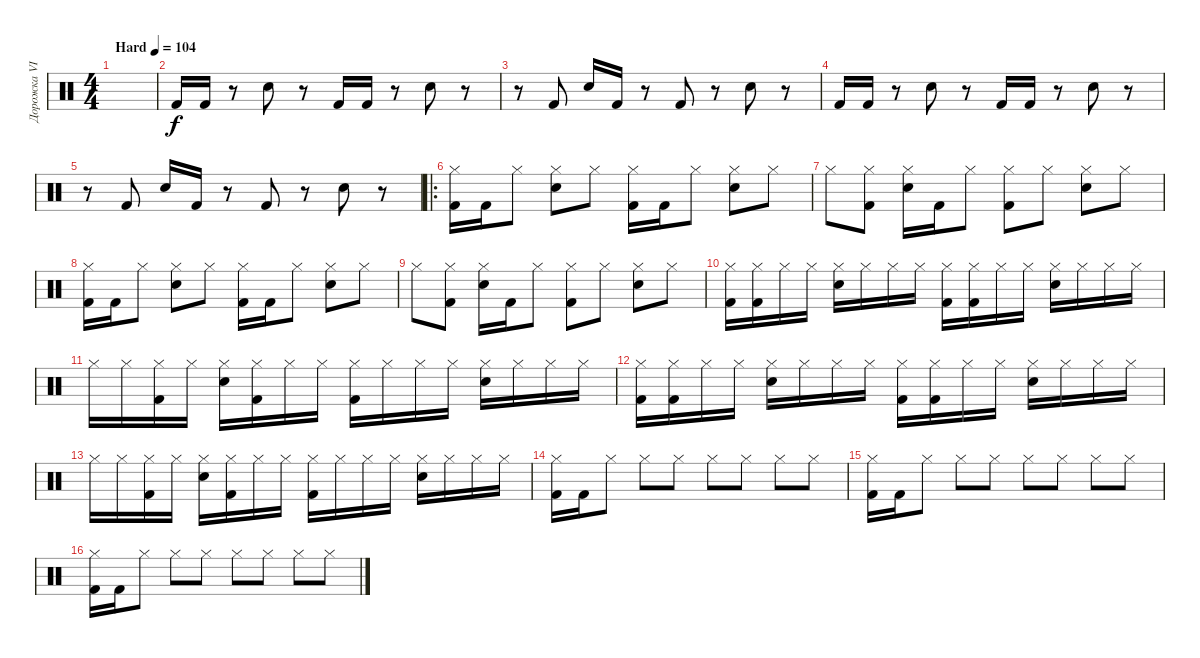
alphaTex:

\track ("Дорожка VII" "Дорожка VI") {instrument percussion}
\staff {score}
\articulation defaults
\ts (4 4)
\tempo (104 "Hard")
\clef neutral
\ks c
|
"Kick (hit) 2".16 "Kick (hit) 2".16 r.8 "Electric Snare (hit)".8 r.8 "Kick (hit) 2".16 "Kick (hit) 2".16 r.8 "Electric Snare (hit)".8 r.8 |
r.8 "Kick (hit) 2".8 "Electric Snare (hit)".16 "Kick (hit) 2".16 r.8 "Kick (hit) 2".8 r.8 "Electric Snare (hit)".8 r.8 |
"Kick (hit) 2".16 "Kick (hit) 2".16 r.8 "Electric Snare (hit)".8 r.8 "Kick (hit) 2".16 "Kick (hit) 2".16 r.8 "Electric Snare (hit)".8 r.8 |
r.8 "Kick (hit) 2".8 "Electric Snare (hit)".16 "Kick (hit) 2".16 r.8 "Kick (hit) 2".8 r.8 "Electric Snare (hit)".8 r.8 |
\ro
("Kick (hit) 2" "Hi-Hat (closed)").16 "Kick (hit) 2".16 "Hi-Hat (closed)".8 ("Electric Snare (hit)" "Hi-Hat (closed)").8 "Hi-Hat (closed)".8 ("Kick (hit) 2" "Hi-Hat (closed)").16 "Kick (hit) 2".16 "Hi-Hat (closed)".8 ("Electric Snare (hit)" "Hi-Hat (closed)").8 "Hi-Hat (closed)".8 |
"Hi-Hat (closed)".8 ("Kick (hit) 2" "Hi-Hat (closed)").8 ("Electric Snare (hit)" "Hi-Hat (closed)").16 "Kick (hit) 2".16 "Hi-Hat (closed)".8 ("Kick (hit) 2" "Hi-Hat (closed)").8 "Hi-Hat (closed)".8 ("Electric Snare (hit)" "Hi-Hat (closed)").8 "Hi-Hat (closed)".8 |
("Kick (hit) 2" "Hi-Hat (closed)").16 "Kick (hit) 2".16 "Hi-Hat (closed)".8 ("Electric Snare (hit)" "Hi-Hat (closed)").8 "Hi-Hat (closed)".8 ("Kick (hit) 2" "Hi-Hat (closed)").16 "Kick (hit) 2".16 "Hi-Hat (closed)".8 ("Electric Snare (hit)" "Hi-Hat (closed)").8 "Hi-Hat (closed)".8 |
"Hi-Hat (closed)".8 ("Kick (hit) 2" "Hi-Hat (closed)").8 ("Electric Snare (hit)" "Hi-Hat (closed)").16 "Kick (hit) 2".16 "Hi-Hat (closed)".8 ("Kick (hit) 2" "Hi-Hat (closed)").8 "Hi-Hat (closed)".8 ("Electric Snare (hit)" "Hi-Hat (closed)").8 "Hi-Hat (closed)".8 |
("Kick (hit) 2" "Hi-Hat (closed)").16 ("Kick (hit) 2" "Hi-Hat (closed)").16 "Hi-Hat (closed)".16 "Hi-Hat (closed)".16 ("Electric Snare (hit)" "Hi-Hat (closed)").16 "Hi-Hat (closed)".16 "Hi-Hat (closed)".16 "Hi-Hat (closed)".16 ("Kick (hit) 2" "Hi-Hat (closed)").16 ("Kick (hit) 2" "Hi-Hat (closed)").16 "Hi-Hat (closed)".16 "Hi-Hat (closed)".16 ("Electric Snare (hit)" "Hi-Hat (closed)").16 "Hi-Hat (closed)".16 "Hi-Hat (closed)".16 "Hi-Hat (closed)".16 |
"Hi-Hat (closed)".16 "Hi-Hat (closed)".16 ("Kick (hit) 2" "Hi-Hat (closed)").16 "Hi-Hat (closed)".16 ("Electric Snare (hit)" "Hi-Hat (closed)").16 ("Kick (hit) 2" "Hi-Hat (closed)").16 "Hi-Hat (closed)".16 "Hi-Hat (closed)".16 ("Kick (hit) 2" "Hi-Hat (closed)").16 "Hi-Hat (closed)".16 "Hi-Hat (closed)".16 "Hi-Hat (closed)".16 ("Electric Snare (hit)" "Hi-Hat (closed)").16 "Hi-Hat (closed)".16 "Hi-Hat (closed)".16 "Hi-Hat (closed)".16 |
("Kick (hit) 2" "Hi-Hat (closed)").16 ("Kick (hit) 2" "Hi-Hat (closed)").16 "Hi-Hat (closed)".16 "Hi-Hat (closed)".16 ("Electric Snare (hit)" "Hi-Hat (closed)").16 "Hi-Hat (closed)".16 "Hi-Hat (closed)".16 "Hi-Hat (closed)".16 ("Kick (hit) 2" "Hi-Hat (closed)").16 ("Kick (hit) 2" "Hi-Hat (closed)").16 "Hi-Hat (closed)".16 "Hi-Hat (closed)".16 ("Electric Snare (hit)" "Hi-Hat (closed)").16 "Hi-Hat (closed)".16 "Hi-Hat (closed)".16 "Hi-Hat (closed)".16 |
"Hi-Hat (closed)".16 "Hi-Hat (closed)".16 ("Kick (hit) 2" "Hi-Hat (closed)").16 "Hi-Hat (closed)".16 ("Electric Snare (hit)" "Hi-Hat (closed)").16 ("Kick (hit) 2" "Hi-Hat (closed)").16 "Hi-Hat (closed)".16 "Hi-Hat (closed)".16 ("Kick (hit) 2" "Hi-Hat (closed)").16 "Hi-Hat (closed)".16 "Hi-Hat (closed)".16 "Hi-Hat (closed)".16 ("Electric Snare (hit)" "Hi-Hat (closed)").16 "Hi-Hat (closed)".16 "Hi-Hat (closed)".16 "Hi-Hat (closed)".16 |
("Kick (hit) 2" "Hi-Hat (closed)").16 "Kick (hit) 2".16 "Hi-Hat (closed)".8 "Hi-Hat (closed)".8 "Hi-Hat (closed)".8 "Hi-Hat (closed)".8 "Hi-Hat (closed)".8 "Hi-Hat (closed)".8 "Hi-Hat (closed)".8 |
("Kick (hit) 2" "Hi-Hat (closed)").16 "Kick (hit) 2".16 "Hi-Hat (closed)".8 "Hi-Hat (closed)".8 "Hi-Hat (closed)".8 "Hi-Hat (closed)".8 "Hi-Hat (closed)".8 "Hi-Hat (closed)".8 "Hi-Hat (closed)".8 |
("Kick (hit) 2" "Hi-Hat (closed)").16 "Kick (hit) 2".16 "Hi-Hat (closed)".8 "Hi-Hat (closed)".8 "Hi-Hat (closed)".8 "Hi-Hat (closed)".8 "Hi-Hat (closed)".8 "Hi-Hat (closed)".8 "Hi-Hat (closed)".8
